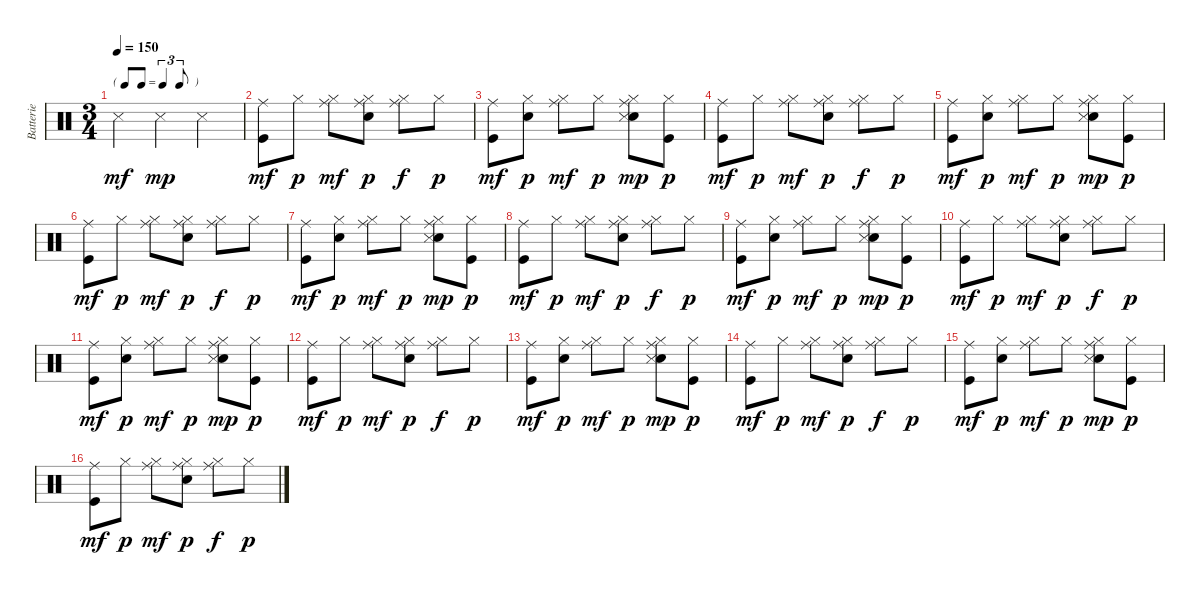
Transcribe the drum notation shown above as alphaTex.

\track ("Batterie" "Batterie") {instrument percussion}
\staff {score}
\articulation defaults
\ts (3 4)
\tf triplet8th
\tempo 150
\clef neutral
\ks c "Snare (side stick) 3".4{dy mf} "Snare (side stick) 3".4{dy mp} "Snare (side stick) 3".4
|
("Kick (hit)" "Ride (middle)").8{dy mf} "Hi-Hat (closed)".8{dy p} ("Hi-Hat (closed)" "Ride (middle)").8{dy mf} ("Snare (hit) 2" "Hi-Hat (closed)" "Ride (middle)").8{dy p} ("Hi-Hat (closed)" "Ride (middle)").8{dy f} "Hi-Hat (closed)".8{dy p} |
("Kick (hit)" "Ride (middle)").8{dy mf} ("Snare (hit) 2" "Hi-Hat (closed)").8{dy p} ("Hi-Hat (closed)" "Ride (middle)").8{dy mf} "Hi-Hat (closed)".8{dy p} ("Snare (hit) 2" "Hi-Hat (closed)" "Snare (side stick) 3" "Ride (middle)").8{dy mp} ("Kick (hit)" "Hi-Hat (closed)").8{dy p} |
("Kick (hit)" "Ride (middle)").8{dy mf} "Hi-Hat (closed)".8{dy p} ("Hi-Hat (closed)" "Ride (middle)").8{dy mf} ("Snare (hit) 2" "Hi-Hat (closed)" "Ride (middle)").8{dy p} ("Hi-Hat (closed)" "Ride (middle)").8{dy f} "Hi-Hat (closed)".8{dy p} |
("Kick (hit)" "Ride (middle)").8{dy mf} ("Snare (hit) 2" "Hi-Hat (closed)").8{dy p} ("Hi-Hat (closed)" "Ride (middle)").8{dy mf} "Hi-Hat (closed)".8{dy p} ("Snare (hit) 2" "Hi-Hat (closed)" "Snare (side stick) 3" "Ride (middle)").8{dy mp} ("Kick (hit)" "Hi-Hat (closed)").8{dy p} |
("Kick (hit)" "Ride (middle)").8{dy mf} "Hi-Hat (closed)".8{dy p} ("Hi-Hat (closed)" "Ride (middle)").8{dy mf} ("Snare (hit) 2" "Hi-Hat (closed)" "Ride (middle)").8{dy p} ("Hi-Hat (closed)" "Ride (middle)").8{dy f} "Hi-Hat (closed)".8{dy p} |
("Kick (hit)" "Ride (middle)").8{dy mf} ("Snare (hit) 2" "Hi-Hat (closed)").8{dy p} ("Hi-Hat (closed)" "Ride (middle)").8{dy mf} "Hi-Hat (closed)".8{dy p} ("Snare (hit) 2" "Hi-Hat (closed)" "Snare (side stick) 3" "Ride (middle)").8{dy mp} ("Kick (hit)" "Hi-Hat (closed)").8{dy p} |
("Kick (hit)" "Ride (middle)").8{dy mf} "Hi-Hat (closed)".8{dy p} ("Hi-Hat (closed)" "Ride (middle)").8{dy mf} ("Snare (hit) 2" "Hi-Hat (closed)" "Ride (middle)").8{dy p} ("Hi-Hat (closed)" "Ride (middle)").8{dy f} "Hi-Hat (closed)".8{dy p} |
("Kick (hit)" "Ride (middle)").8{dy mf} ("Snare (hit) 2" "Hi-Hat (closed)").8{dy p} ("Hi-Hat (closed)" "Ride (middle)").8{dy mf} "Hi-Hat (closed)".8{dy p} ("Snare (hit) 2" "Hi-Hat (closed)" "Snare (side stick) 3" "Ride (middle)").8{dy mp} ("Kick (hit)" "Hi-Hat (closed)").8{dy p} |
("Kick (hit)" "Ride (middle)").8{dy mf} "Hi-Hat (closed)".8{dy p} ("Hi-Hat (closed)" "Ride (middle)").8{dy mf} ("Snare (hit) 2" "Hi-Hat (closed)" "Ride (middle)").8{dy p} ("Hi-Hat (closed)" "Ride (middle)").8{dy f} "Hi-Hat (closed)".8{dy p} |
("Kick (hit)" "Ride (middle)").8{dy mf} ("Snare (hit) 2" "Hi-Hat (closed)").8{dy p} ("Hi-Hat (closed)" "Ride (middle)").8{dy mf} "Hi-Hat (closed)".8{dy p} ("Snare (hit) 2" "Hi-Hat (closed)" "Snare (side stick) 3" "Ride (middle)").8{dy mp} ("Kick (hit)" "Hi-Hat (closed)").8{dy p} |
("Kick (hit)" "Ride (middle)").8{dy mf} "Hi-Hat (closed)".8{dy p} ("Hi-Hat (closed)" "Ride (middle)").8{dy mf} ("Snare (hit) 2" "Hi-Hat (closed)" "Ride (middle)").8{dy p} ("Hi-Hat (closed)" "Ride (middle)").8{dy f} "Hi-Hat (closed)".8{dy p} |
("Kick (hit)" "Ride (middle)").8{dy mf} ("Snare (hit) 2" "Hi-Hat (closed)").8{dy p} ("Hi-Hat (closed)" "Ride (middle)").8{dy mf} "Hi-Hat (closed)".8{dy p} ("Snare (hit) 2" "Hi-Hat (closed)" "Snare (side stick) 3" "Ride (middle)").8{dy mp} ("Kick (hit)" "Hi-Hat (closed)").8{dy p} |
("Kick (hit)" "Ride (middle)").8{dy mf} "Hi-Hat (closed)".8{dy p} ("Hi-Hat (closed)" "Ride (middle)").8{dy mf} ("Snare (hit) 2" "Hi-Hat (closed)" "Ride (middle)").8{dy p} ("Hi-Hat (closed)" "Ride (middle)").8{dy f} "Hi-Hat (closed)".8{dy p} |
("Kick (hit)" "Ride (middle)").8{dy mf} ("Snare (hit) 2" "Hi-Hat (closed)").8{dy p} ("Hi-Hat (closed)" "Ride (middle)").8{dy mf} "Hi-Hat (closed)".8{dy p} ("Snare (hit) 2" "Hi-Hat (closed)" "Snare (side stick) 3" "Ride (middle)").8{dy mp} ("Kick (hit)" "Hi-Hat (closed)").8{dy p} |
("Kick (hit)" "Ride (middle)").8{dy mf} "Hi-Hat (closed)".8{dy p} ("Hi-Hat (closed)" "Ride (middle)").8{dy mf} ("Snare (hit) 2" "Hi-Hat (closed)" "Ride (middle)").8{dy p} ("Hi-Hat (closed)" "Ride (middle)").8{dy f} "Hi-Hat (closed)".8{dy p}
